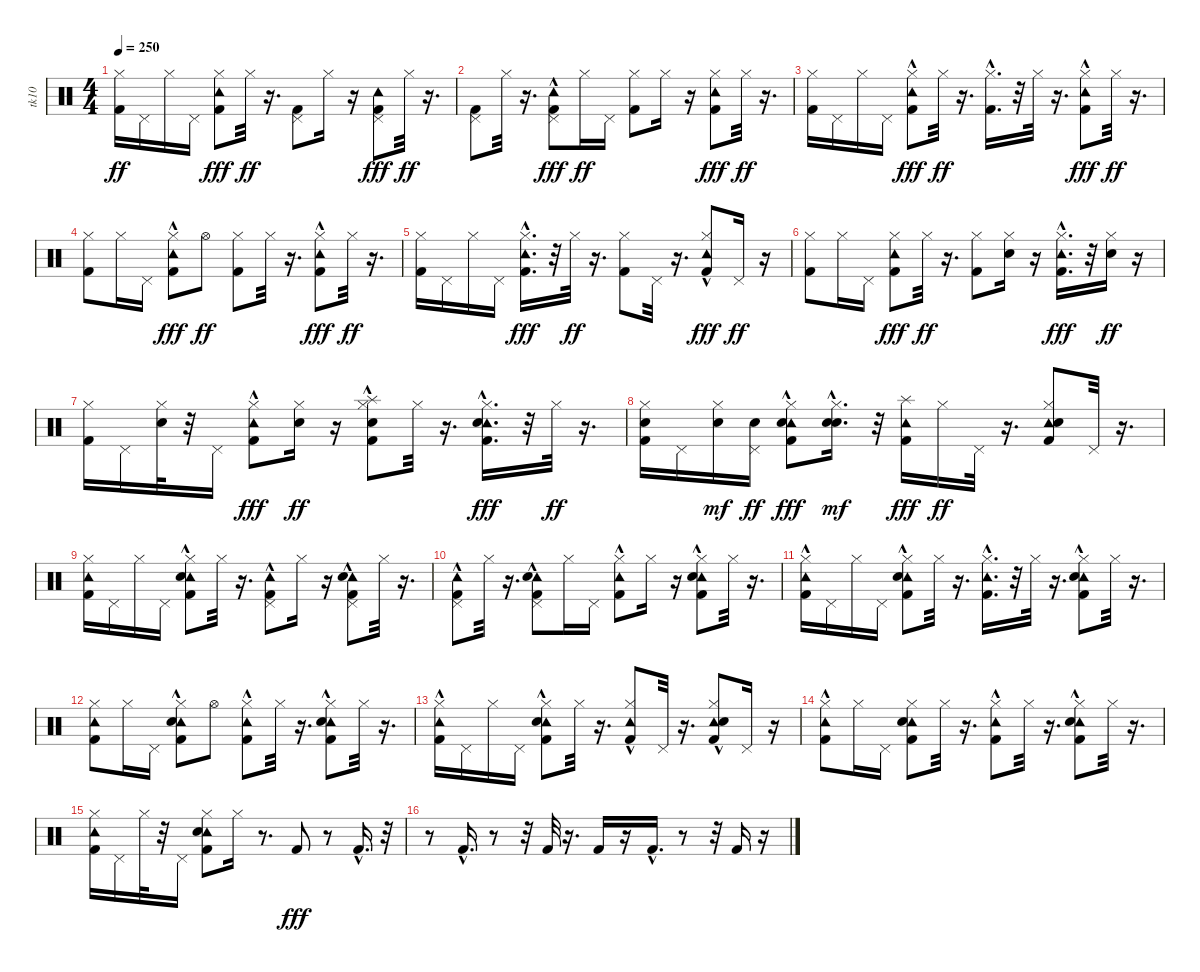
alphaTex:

\track ("tk10" "tk10") {instrument percussion}
\staff {score}
\articulation defaults
\ts (4 4)
\tempo 250
\clef neutral
\ks c
("Kick (hit) 2" "Hi-Hat (closed)").16{dy ff} "Pedal Hi-Hat (hit)".16 "Hi-Hat (closed)".16 "Pedal Hi-Hat (hit)".16 ("Kick (hit) 2" "Hi-Hat (closed)" "Tambourine (hit)").8{dy fff} "Hi-Hat (closed)".32{dy ff} r.16{d} ("Kick (hit) 2" "Pedal Hi-Hat (hit)").8 "Hi-Hat (closed)".16 r.16 ("Kick (hit) 2" "Pedal Hi-Hat (hit)" "Tambourine (hit)").8{dy fff} "Hi-Hat (closed)".32{dy ff} r.16{d} |
("Kick (hit) 2" "Pedal Hi-Hat (hit)").8 "Hi-Hat (closed)".32 r.16{d} ("Kick (hit) 2" "Pedal Hi-Hat (hit)" "Tambourine (hit)"{hac}).8{dy fff} "Hi-Hat (closed)".16{dy ff} "Pedal Hi-Hat (hit)".16 ("Kick (hit) 2" "Hi-Hat (closed)").8 "Hi-Hat (closed)".16 r.16 ("Kick (hit) 2" "Hi-Hat (closed)" "Tambourine (hit)").8{dy fff} "Hi-Hat (closed)".32{dy ff} r.16{d} |
("Kick (hit) 2" "Hi-Hat (closed)").16 "Pedal Hi-Hat (hit)".16 "Hi-Hat (closed)".16 "Pedal Hi-Hat (hit)".16 ("Kick (hit) 2" "Hi-Hat (closed)" "Tambourine (hit)"{hac}).8{dy fff} "Hi-Hat (closed)".32{dy ff} r.16{d} ("Kick (hit) 2"{hac} "Hi-Hat (closed)").16{d} r.32 "Hi-Hat (closed)".32 r.16{d} ("Kick (hit) 2" "Hi-Hat (closed)" "Tambourine (hit)"{hac}).8{dy fff} "Hi-Hat (closed)".32{dy ff} r.16{d} |
("Kick (hit) 2" "Hi-Hat (closed)").8 "Hi-Hat (closed)".16 "Pedal Hi-Hat (hit)".16 ("Kick (hit) 2" "Hi-Hat (closed)" "Tambourine (hit)"{hac}).8{dy fff} "Hi-Hat (open)".8{dy ff} ("Kick (hit) 2" "Hi-Hat (closed)").8 "Hi-Hat (closed)".32 r.16{d} ("Kick (hit) 2" "Hi-Hat (closed)" "Tambourine (hit)"{hac}).8{dy fff} "Hi-Hat (closed)".32{dy ff} r.16{d} |
("Kick (hit) 2" "Hi-Hat (closed)").16 "Pedal Hi-Hat (hit)".16 "Hi-Hat (closed)".16 "Pedal Hi-Hat (hit)".16 ("Kick (hit) 2"{hac} "Hi-Hat (closed)" "Tambourine (hit)"{hac}).16{d dy fff} r.32 "Hi-Hat (closed)".32{dy ff} r.16{d} ("Kick (hit) 2" "Hi-Hat (closed)").8 "Pedal Hi-Hat (hit)".32 r.16{d} ("Kick (hit) 2" "Hi-Hat (closed)" "Tambourine (hit)"{hac}).8{dy fff} "Pedal Hi-Hat (hit)".16{dy ff} r.16 |
("Kick (hit) 2" "Hi-Hat (closed)").8 "Hi-Hat (closed)".16 "Pedal Hi-Hat (hit)".16 ("Kick (hit) 2" "Hi-Hat (closed)" "Tambourine (hit)").8{dy fff} "Hi-Hat (closed)".32{dy ff} r.16{d} ("Kick (hit) 2" "Hi-Hat (closed)").8 ("Hi-Hat (closed)" "Electric Snare (hit)").16 r.16 ("Kick (hit) 2"{hac} "Hi-Hat (closed)" "Tambourine (hit)"{hac}).16{d dy fff} r.32 ("Hi-Hat (closed)" "Electric Snare (hit)").16{dy ff} r.16 |
("Kick (hit) 2" "Hi-Hat (closed)").16 "Pedal Hi-Hat (hit)".16 ("Hi-Hat (closed)" "Electric Snare (hit)").32 r.32 "Pedal Hi-Hat (hit)".16 ("Kick (hit) 2" "Hi-Hat (closed)" "Tambourine (hit)"{hac}).8{dy fff} ("Hi-Hat (closed)" "Electric Snare (hit)").16{dy ff} r.16 ("Kick (hit) 2" "Hi-Hat (closed)" "Electric Snare (hit)" "Splash (hit)"{hac}).8 "Hi-Hat (closed)".32 r.16{d} ("Kick (hit) 2"{hac} "Hi-Hat (closed)" "Tambourine (hit)"{hac} "Electric Snare (hit)").16{d dy fff} r.32 "Hi-Hat (closed)".32{dy ff} r.16{d} |
("Kick (hit) 2" "Hi-Hat (closed)" "Electric Snare (hit)").16 "Pedal Hi-Hat (hit)".16 ("Hi-Hat (closed)" "Electric Snare (hit)").16{dy mf} ("Pedal Hi-Hat (hit)" "Electric Snare (hit)").16{dy ff} ("Kick (hit) 2" "Hi-Hat (closed)" "Tambourine (hit)"{hac} "Electric Snare (hit)").8{dy fff} ("Hi-Hat (closed)" "Electric Snare (hit)"{hac} "Electric Snare (hit)"{hac}).16{d dy mf} r.32 ("Kick (hit) 2" "Tambourine (hit)" "Splash (hit)").16{dy fff} "Hi-Hat (closed)".16{dy ff} "Pedal Hi-Hat (hit)".32 r.16{d} ("Kick (hit) 2" "Tambourine (hit)" "Hi-Hat (closed)" "Electric Snare (hit)").8 "Pedal Hi-Hat (hit)".32 r.16{d} |
("Kick (hit) 2" "Tambourine (hit)" "Hi-Hat (closed)").16 "Pedal Hi-Hat (hit)".16 "Hi-Hat (closed)".16 "Pedal Hi-Hat (hit)".16 ("Kick (hit) 2" "Tambourine (hit)"{hac} "Hi-Hat (closed)" "Electric Snare (hit)"{hac}).8 "Hi-Hat (closed)".32 r.16{d} ("Kick (hit) 2" "Tambourine (hit)"{hac} "Pedal Hi-Hat (hit)").8 "Hi-Hat (closed)".16 r.16 ("Kick (hit) 2" "Tambourine (hit)"{hac} "Pedal Hi-Hat (hit)" "Electric Snare (hit)"{hac}).8 "Hi-Hat (closed)".32 r.16{d} |
("Kick (hit) 2" "Tambourine (hit)"{hac} "Pedal Hi-Hat (hit)").8 "Hi-Hat (closed)".32 r.16{d} ("Kick (hit) 2" "Tambourine (hit)"{hac} "Pedal Hi-Hat (hit)" "Electric Snare (hit)"{hac}).8 "Hi-Hat (closed)".16 "Pedal Hi-Hat (hit)".16 ("Kick (hit) 2" "Tambourine (hit)"{hac} "Hi-Hat (closed)").8 "Hi-Hat (closed)".16 r.16 ("Kick (hit) 2" "Tambourine (hit)"{hac} "Hi-Hat (closed)" "Electric Snare (hit)"{hac}).8 "Hi-Hat (closed)".32 r.16{d} |
("Kick (hit) 2" "Tambourine (hit)"{hac} "Hi-Hat (closed)").16 "Pedal Hi-Hat (hit)".16 "Hi-Hat (closed)".16 "Pedal Hi-Hat (hit)".16 ("Kick (hit) 2" "Tambourine (hit)"{hac} "Hi-Hat (closed)" "Electric Snare (hit)"{hac}).8 "Hi-Hat (closed)".32 r.16{d} ("Kick (hit) 2"{hac} "Tambourine (hit)"{hac} "Hi-Hat (closed)").16{d} r.32 "Hi-Hat (closed)".32 r.16{d} ("Kick (hit) 2" "Tambourine (hit)" "Hi-Hat (closed)" "Electric Snare (hit)"{hac}).8 "Hi-Hat (closed)".32 r.16{d} |
("Kick (hit) 2" "Tambourine (hit)" "Hi-Hat (closed)").8 "Hi-Hat (closed)".16 "Pedal Hi-Hat (hit)".16 ("Kick (hit) 2" "Tambourine (hit)"{hac} "Hi-Hat (closed)" "Electric Snare (hit)"{hac}).8 "Hi-Hat (open)".8 ("Kick (hit) 2" "Tambourine (hit)"{hac} "Hi-Hat (closed)").8 "Hi-Hat (closed)".32 r.16{d} ("Kick (hit) 2" "Tambourine (hit)" "Hi-Hat (closed)" "Electric Snare (hit)"{hac}).8 "Hi-Hat (closed)".32 r.16{d} |
("Kick (hit) 2" "Tambourine (hit)"{hac} "Hi-Hat (closed)").16 "Pedal Hi-Hat (hit)".16 "Hi-Hat (closed)".16 "Pedal Hi-Hat (hit)".16 ("Kick (hit) 2"{hac} "Tambourine (hit)"{hac} "Hi-Hat (closed)" "Electric Snare (hit)"{hac}).8 "Hi-Hat (closed)".32 r.16{d} ("Kick (hit) 2" "Tambourine (hit)"{hac} "Hi-Hat (closed)").8 "Pedal Hi-Hat (hit)".32 r.16{d} ("Kick (hit) 2" "Tambourine (hit)"{hac} "Hi-Hat (closed)" "Electric Snare (hit)"{hac}).8 "Pedal Hi-Hat (hit)".16 r.16 |
("Kick (hit) 2" "Tambourine (hit)"{hac} "Hi-Hat (closed)").8 "Hi-Hat (closed)".16 "Pedal Hi-Hat (hit)".16 ("Kick (hit) 2" "Tambourine (hit)" "Hi-Hat (closed)" "Electric Snare (hit)").8 "Hi-Hat (closed)".32 r.16{d} ("Kick (hit) 2" "Tambourine (hit)"{hac} "Hi-Hat (closed)").8 "Hi-Hat (closed)".32 r.16{d} ("Kick (hit) 2"{hac} "Tambourine (hit)" "Hi-Hat (closed)" "Electric Snare (hit)"{hac}).8 "Hi-Hat (closed)".32 r.16{d} |
("Kick (hit) 2" "Tambourine (hit)" "Hi-Hat (closed)").16 "Pedal Hi-Hat (hit)".16 "Hi-Hat (closed)".32 r.32 "Pedal Hi-Hat (hit)".16 ("Kick (hit) 2" "Tambourine (hit)" "Hi-Hat (closed)" "Electric Snare (hit)").8 "Hi-Hat (closed)".16 r.8{d} "Kick (hit) 2".8{dy fff} r.8 "Kick (hit) 2"{hac}.16{d} r.32 |
r.8 "Kick (hit) 2"{hac}.16{d} r.8 r.32 "Kick (hit) 2".32 r.16{d} "Kick (hit) 2".16 r.16 "Kick (hit) 2"{hac}.16{d} r.8 r.32 "Kick (hit) 2".16 r.16
